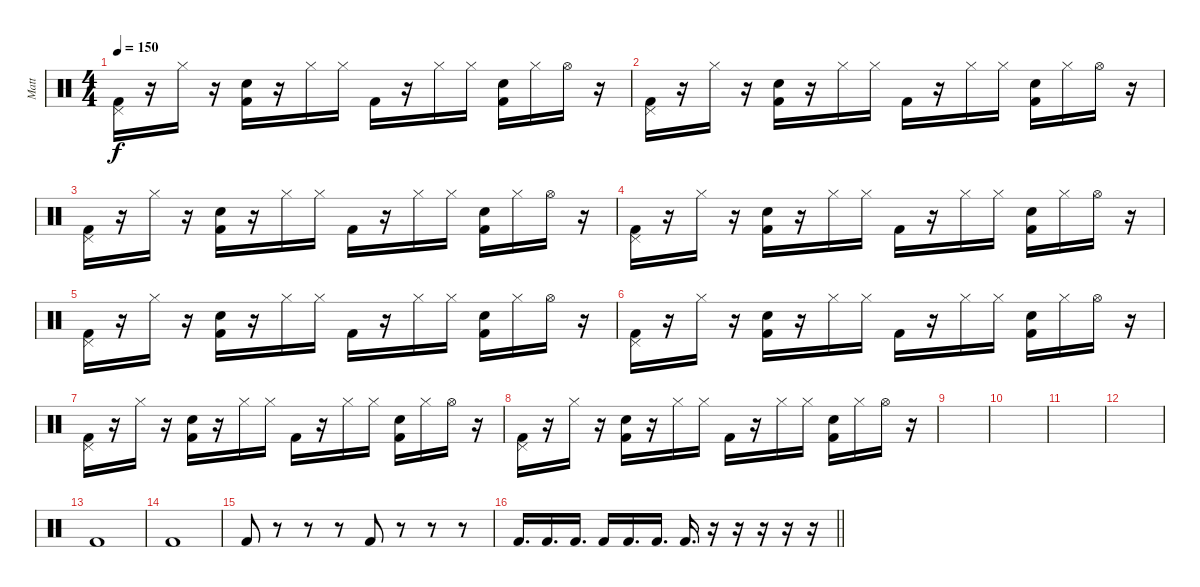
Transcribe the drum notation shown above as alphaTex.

\track ("Matt" "Matt") {instrument percussion}
\staff {score}
\articulation defaults
\ts (4 4)
\tempo 150
\clef neutral
\ks c
("Pedal Hi-Hat (hit)" "Kick (hit) 2").16{dy f} r.16 "Hi-Hat (closed)".16 r.16 ("Snare (hit) 2" "Kick (hit) 2").16 r.16 "Hi-Hat (closed)".16 "Hi-Hat (closed)".16 "Kick (hit) 2".16 r.16 "Hi-Hat (closed)".16 "Hi-Hat (closed)".16 ("Snare (hit) 2" "Kick (hit) 2").16 "Hi-Hat (closed)".16 "Hi-Hat (open)".16 r.16 |
("Pedal Hi-Hat (hit)" "Kick (hit) 2").16 r.16 "Hi-Hat (closed)".16 r.16 ("Snare (hit) 2" "Kick (hit) 2").16 r.16 "Hi-Hat (closed)".16 "Hi-Hat (closed)".16 "Kick (hit) 2".16 r.16 "Hi-Hat (closed)".16 "Hi-Hat (closed)".16 ("Snare (hit) 2" "Kick (hit) 2").16 "Hi-Hat (closed)".16 "Hi-Hat (open)".16 r.16 |
("Pedal Hi-Hat (hit)" "Kick (hit) 2").16 r.16 "Hi-Hat (closed)".16 r.16 ("Snare (hit) 2" "Kick (hit) 2").16 r.16 "Hi-Hat (closed)".16 "Hi-Hat (closed)".16 "Kick (hit) 2".16 r.16 "Hi-Hat (closed)".16 "Hi-Hat (closed)".16 ("Snare (hit) 2" "Kick (hit) 2").16 "Hi-Hat (closed)".16 "Hi-Hat (open)".16 r.16 |
("Pedal Hi-Hat (hit)" "Kick (hit) 2").16 r.16 "Hi-Hat (closed)".16 r.16 ("Snare (hit) 2" "Kick (hit) 2").16 r.16 "Hi-Hat (closed)".16 "Hi-Hat (closed)".16 "Kick (hit) 2".16 r.16 "Hi-Hat (closed)".16 "Hi-Hat (closed)".16 ("Snare (hit) 2" "Kick (hit) 2").16 "Hi-Hat (closed)".16 "Hi-Hat (open)".16 r.16 |
("Pedal Hi-Hat (hit)" "Kick (hit) 2").16 r.16 "Hi-Hat (closed)".16 r.16 ("Snare (hit) 2" "Kick (hit) 2").16 r.16 "Hi-Hat (closed)".16 "Hi-Hat (closed)".16 "Kick (hit) 2".16 r.16 "Hi-Hat (closed)".16 "Hi-Hat (closed)".16 ("Snare (hit) 2" "Kick (hit) 2").16 "Hi-Hat (closed)".16 "Hi-Hat (open)".16 r.16 |
("Pedal Hi-Hat (hit)" "Kick (hit) 2").16 r.16 "Hi-Hat (closed)".16 r.16 ("Snare (hit) 2" "Kick (hit) 2").16 r.16 "Hi-Hat (closed)".16 "Hi-Hat (closed)".16 "Kick (hit) 2".16 r.16 "Hi-Hat (closed)".16 "Hi-Hat (closed)".16 ("Snare (hit) 2" "Kick (hit) 2").16 "Hi-Hat (closed)".16 "Hi-Hat (open)".16 r.16 |
("Pedal Hi-Hat (hit)" "Kick (hit) 2").16 r.16 "Hi-Hat (closed)".16 r.16 ("Snare (hit) 2" "Kick (hit) 2").16 r.16 "Hi-Hat (closed)".16 "Hi-Hat (closed)".16 "Kick (hit) 2".16 r.16 "Hi-Hat (closed)".16 "Hi-Hat (closed)".16 ("Snare (hit) 2" "Kick (hit) 2").16 "Hi-Hat (closed)".16 "Hi-Hat (open)".16 r.16 |
("Pedal Hi-Hat (hit)" "Kick (hit) 2").16 r.16 "Hi-Hat (closed)".16 r.16 ("Snare (hit) 2" "Kick (hit) 2").16 r.16 "Hi-Hat (closed)".16 "Hi-Hat (closed)".16 "Kick (hit) 2".16 r.16 "Hi-Hat (closed)".16 "Hi-Hat (closed)".16 ("Snare (hit) 2" "Kick (hit) 2").16 "Hi-Hat (closed)".16 "Hi-Hat (open)".16 r.16 |
|
|
|
|
"Kick (hit) 2".1 |
"Kick (hit) 2".1 |
"Kick (hit) 2".8 r.8 r.8 r.8 "Kick (hit) 2".8 r.8 r.8 r.8 |
\barLineRight lightlight "Kick (hit) 2".16{d} "Kick (hit) 2".16{d} "Kick (hit) 2".16{d} "Kick (hit) 2".16 "Kick (hit) 2".16{d} "Kick (hit) 2".16{d} "Kick (hit) 2".16{d}
r.16 r.16 r.16 r.16 r.16
